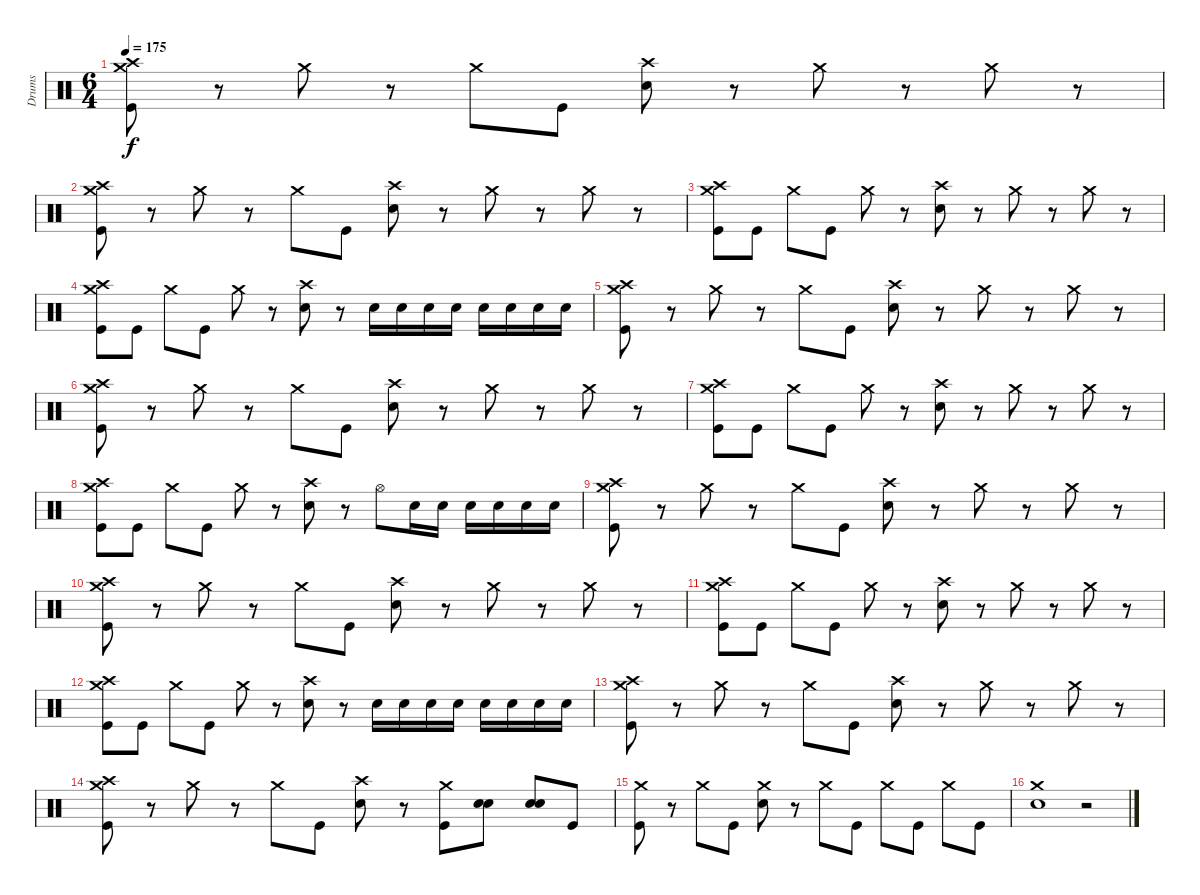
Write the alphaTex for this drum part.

\track ("Drums" "Drums") {instrument percussion}
\staff {score}
\articulation defaults
\ts (6 4)
\tempo 175
\clef neutral
\ks c
("Crash high (hit)" "Crash medium (hit)" "Kick (hit)").8{dy f} r.8 "Crash medium (hit)".8 r.8 "Crash medium (hit)".8 "Kick (hit)".8 ("Crash high (hit)" "Snare (hit) 2").8 r.8 "Crash medium (hit)".8 r.8 "Crash medium (hit)".8 r.8 |
("Crash high (hit)" "Crash medium (hit)" "Kick (hit)").8 r.8 "Crash medium (hit)".8 r.8 "Crash medium (hit)".8 "Kick (hit)".8 ("Crash high (hit)" "Snare (hit) 2").8 r.8 "Crash medium (hit)".8 r.8 "Crash medium (hit)".8 r.8 |
("Crash high (hit)" "Crash medium (hit)" "Kick (hit)").8 "Kick (hit)".8 "Crash medium (hit)".8 "Kick (hit)".8 "Crash medium (hit)".8 r.8 ("Crash high (hit)" "Snare (hit) 2").8 r.8 "Crash medium (hit)".8 r.8 "Crash medium (hit)".8 r.8 |
("Crash high (hit)" "Crash medium (hit)" "Kick (hit)").8 "Kick (hit)".8 "Crash medium (hit)".8 "Kick (hit)".8 "Crash medium (hit)".8 r.8 ("Crash high (hit)" "Snare (hit) 2").8 r.8 "Snare (hit) 2".16 "Snare (hit) 2".16 "Snare (hit) 2".16 "Snare (hit) 2".16 "Snare (hit) 2".16 "Snare (hit) 2".16 "Snare (hit) 2".16 "Snare (hit) 2".16 |
("Crash high (hit)" "Crash medium (hit)" "Kick (hit)").8 r.8 "Crash medium (hit)".8 r.8 "Crash medium (hit)".8 "Kick (hit)".8 ("Crash high (hit)" "Snare (hit) 2").8 r.8 "Crash medium (hit)".8 r.8 "Crash medium (hit)".8 r.8 |
("Crash high (hit)" "Crash medium (hit)" "Kick (hit)").8 r.8 "Crash medium (hit)".8 r.8 "Crash medium (hit)".8 "Kick (hit)".8 ("Crash high (hit)" "Snare (hit) 2").8 r.8 "Crash medium (hit)".8 r.8 "Crash medium (hit)".8 r.8 |
("Crash high (hit)" "Crash medium (hit)" "Kick (hit)").8 "Kick (hit)".8 "Crash medium (hit)".8 "Kick (hit)".8 "Crash medium (hit)".8 r.8 ("Crash high (hit)" "Snare (hit) 2").8 r.8 "Crash medium (hit)".8 r.8 "Crash medium (hit)".8 r.8 |
("Crash high (hit)" "Crash medium (hit)" "Kick (hit)").8 "Kick (hit)".8 "Crash medium (hit)".8 "Kick (hit)".8 "Crash medium (hit)".8 r.8 ("Crash high (hit)" "Snare (hit) 2").8 r.8 "Hi-Hat (open)".8 "Snare (hit) 2".16 "Snare (hit) 2".16 "Snare (hit) 2".16 "Snare (hit) 2".16 "Snare (hit) 2".16 "Snare (hit) 2".16 |
("Crash high (hit)" "Crash medium (hit)" "Kick (hit)").8 r.8 "Crash medium (hit)".8 r.8 "Crash medium (hit)".8 "Kick (hit)".8 ("Crash high (hit)" "Snare (hit) 2").8 r.8 "Crash medium (hit)".8 r.8 "Crash medium (hit)".8 r.8 |
("Crash high (hit)" "Crash medium (hit)" "Kick (hit)").8 r.8 "Crash medium (hit)".8 r.8 "Crash medium (hit)".8 "Kick (hit)".8 ("Crash high (hit)" "Snare (hit) 2").8 r.8 "Crash medium (hit)".8 r.8 "Crash medium (hit)".8 r.8 |
("Crash high (hit)" "Crash medium (hit)" "Kick (hit)").8 "Kick (hit)".8 "Crash medium (hit)".8 "Kick (hit)".8 "Crash medium (hit)".8 r.8 ("Crash high (hit)" "Snare (hit) 2").8 r.8 "Crash medium (hit)".8 r.8 "Crash medium (hit)".8 r.8 |
("Crash high (hit)" "Crash medium (hit)" "Kick (hit)").8 "Kick (hit)".8 "Crash medium (hit)".8 "Kick (hit)".8 "Crash medium (hit)".8 r.8 ("Crash high (hit)" "Snare (hit) 2").8 r.8 "Snare (hit) 2".16 "Snare (hit) 2".16 "Snare (hit) 2".16 "Snare (hit) 2".16 "Snare (hit) 2".16 "Snare (hit) 2".16 "Snare (hit) 2".16 "Snare (hit) 2".16 |
("Crash high (hit)" "Crash medium (hit)" "Kick (hit)").8 r.8 "Crash medium (hit)".8 r.8 "Crash medium (hit)".8 "Kick (hit)".8 ("Crash high (hit)" "Snare (hit) 2").8 r.8 "Crash medium (hit)".8 r.8 "Crash medium (hit)".8 r.8 |
("Crash high (hit)" "Crash medium (hit)" "Kick (hit)").8 r.8 "Crash medium (hit)".8 r.8 "Crash medium (hit)".8 "Kick (hit)".8 ("Crash high (hit)" "Snare (hit) 2").8 r.8 ("Crash medium (hit)" "Kick (hit)").8 ("Snare (hit) 2" "Snare (hit) 2").8 ("Snare (hit) 2" "Snare (hit) 2").8 "Kick (hit)".8 |
("Crash medium (hit)" "Kick (hit)").8 r.8 "Crash medium (hit)".8 "Kick (hit)".8 ("Crash medium (hit)" "Snare (hit) 2").8 r.8 "Crash medium (hit)".8 "Kick (hit)".8 "Crash medium (hit)".8 "Kick (hit)".8 "Crash medium (hit)".8 "Kick (hit)".8 |
("Crash medium (hit)" "Snare (hit) 2").1 r.2
